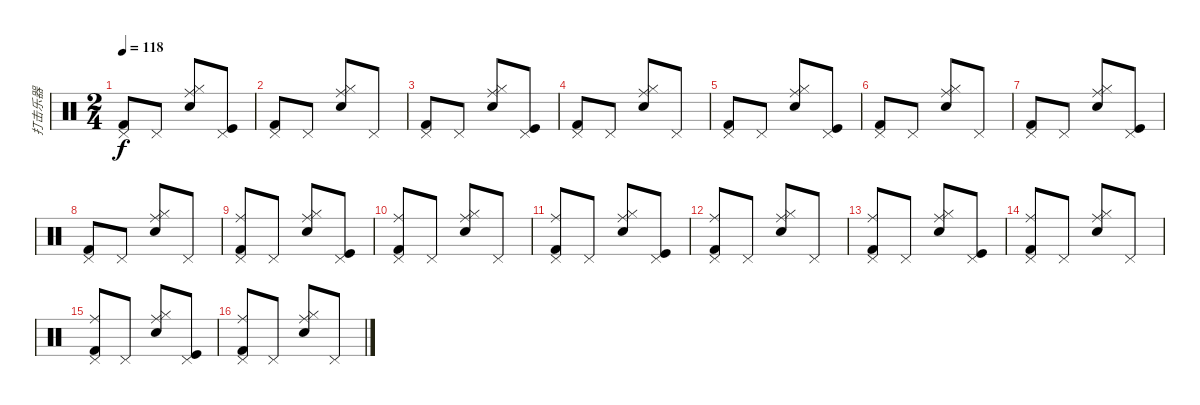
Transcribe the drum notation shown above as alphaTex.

\track ("打击乐器" "打击乐器") {instrument percussion}
\staff {score}
\articulation defaults
\ts (2 4)
\tempo 118
\clef neutral
\ks c
("Pedal Hi-Hat (hit)" "Kick (hit) 2").8{dy f} "Pedal Hi-Hat (hit)".8 ("Ride (middle)" "Hi-Hat (closed)" "Snare (hit) 2").8 ("Pedal Hi-Hat (hit)" "Kick (hit)").8 |
("Pedal Hi-Hat (hit)" "Kick (hit) 2").8 "Pedal Hi-Hat (hit)".8 ("Ride (middle)" "Hi-Hat (closed)" "Snare (hit) 2").8 "Pedal Hi-Hat (hit)".8 |
("Pedal Hi-Hat (hit)" "Kick (hit) 2").8 "Pedal Hi-Hat (hit)".8 ("Ride (middle)" "Hi-Hat (closed)" "Snare (hit) 2").8 ("Pedal Hi-Hat (hit)" "Kick (hit)").8 |
("Pedal Hi-Hat (hit)" "Kick (hit) 2").8 "Pedal Hi-Hat (hit)".8 ("Ride (middle)" "Hi-Hat (closed)" "Snare (hit) 2").8 "Pedal Hi-Hat (hit)".8 |
("Pedal Hi-Hat (hit)" "Kick (hit) 2").8 "Pedal Hi-Hat (hit)".8 ("Ride (middle)" "Hi-Hat (closed)" "Snare (hit) 2").8 ("Pedal Hi-Hat (hit)" "Kick (hit)").8 |
("Pedal Hi-Hat (hit)" "Kick (hit) 2").8 "Pedal Hi-Hat (hit)".8 ("Ride (middle)" "Hi-Hat (closed)" "Snare (hit) 2").8 "Pedal Hi-Hat (hit)".8 |
("Pedal Hi-Hat (hit)" "Kick (hit) 2").8 "Pedal Hi-Hat (hit)".8 ("Ride (middle)" "Hi-Hat (closed)" "Snare (hit) 2").8 ("Pedal Hi-Hat (hit)" "Kick (hit)").8 |
("Pedal Hi-Hat (hit)" "Kick (hit) 2").8 "Pedal Hi-Hat (hit)".8 ("Ride (middle)" "Hi-Hat (closed)" "Snare (hit) 2").8 "Pedal Hi-Hat (hit)".8 |
("Pedal Hi-Hat (hit)" "Ride (middle)" "Kick (hit) 2").8 "Pedal Hi-Hat (hit)".8 ("Ride (middle)" "Hi-Hat (closed)" "Snare (hit) 2").8 ("Pedal Hi-Hat (hit)" "Kick (hit)").8 |
("Pedal Hi-Hat (hit)" "Ride (middle)" "Kick (hit) 2").8 "Pedal Hi-Hat (hit)".8 ("Ride (middle)" "Hi-Hat (closed)" "Snare (hit) 2").8 "Pedal Hi-Hat (hit)".8 |
("Pedal Hi-Hat (hit)" "Ride (middle)" "Kick (hit) 2").8 "Pedal Hi-Hat (hit)".8 ("Ride (middle)" "Hi-Hat (closed)" "Snare (hit) 2").8 ("Pedal Hi-Hat (hit)" "Kick (hit)").8 |
("Pedal Hi-Hat (hit)" "Ride (middle)" "Kick (hit) 2").8 "Pedal Hi-Hat (hit)".8 ("Ride (middle)" "Hi-Hat (closed)" "Snare (hit) 2").8 "Pedal Hi-Hat (hit)".8 |
("Pedal Hi-Hat (hit)" "Ride (middle)" "Kick (hit) 2").8 "Pedal Hi-Hat (hit)".8 ("Ride (middle)" "Hi-Hat (closed)" "Snare (hit) 2").8 ("Pedal Hi-Hat (hit)" "Kick (hit)").8 |
("Pedal Hi-Hat (hit)" "Ride (middle)" "Kick (hit) 2").8 "Pedal Hi-Hat (hit)".8 ("Ride (middle)" "Hi-Hat (closed)" "Snare (hit) 2").8 "Pedal Hi-Hat (hit)".8 |
("Pedal Hi-Hat (hit)" "Ride (middle)" "Kick (hit) 2").8 "Pedal Hi-Hat (hit)".8 ("Ride (middle)" "Hi-Hat (closed)" "Snare (hit) 2").8 ("Pedal Hi-Hat (hit)" "Kick (hit)").8 |
("Pedal Hi-Hat (hit)" "Ride (middle)" "Kick (hit) 2").8 "Pedal Hi-Hat (hit)".8 ("Ride (middle)" "Hi-Hat (closed)" "Snare (hit) 2").8 "Pedal Hi-Hat (hit)".8
